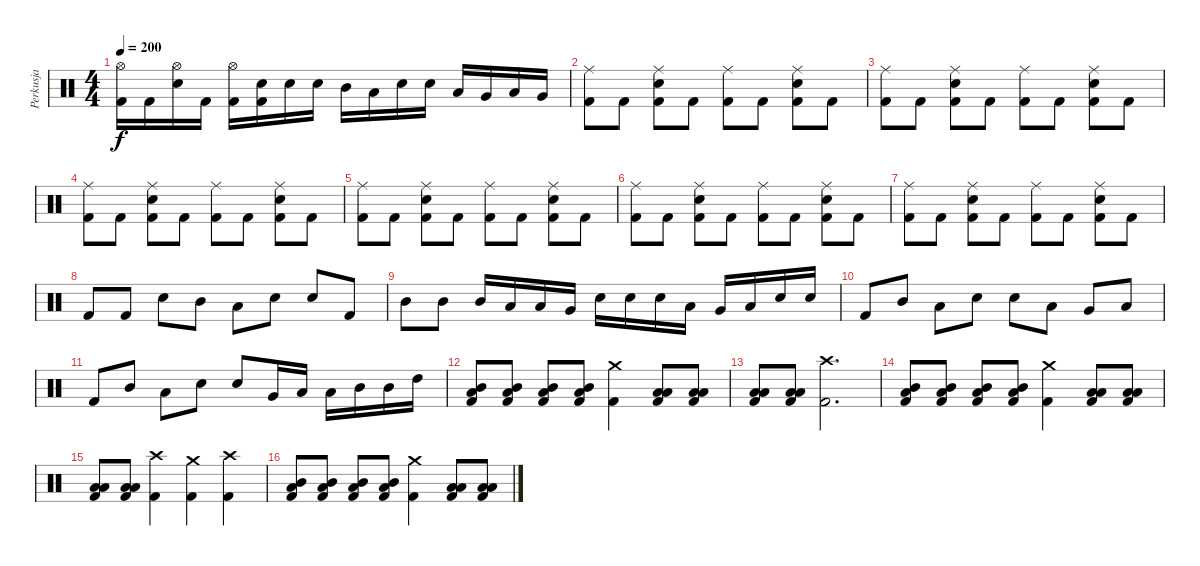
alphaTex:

\track ("Perkusja" "Perkusja") {instrument percussion}
\staff {score}
\articulation defaults
\ts (4 4)
\tempo 200
\clef neutral
\ks c
("Hi-Hat (open)" "Kick (hit) 2").16{dy f} "Kick (hit) 2".16 ("Hi-Hat (open)" "Snare (hit) 2").16 "Kick (hit) 2".16 ("Hi-Hat (open)" "Kick (hit) 2").16 ("Snare (hit) 2" "Kick (hit) 2").16 "Snare (hit) 2".16 "Snare (hit) 2".16 "Mid Tom (hit)".16 "Low Tom (hit)".16 "Snare (hit) 2".16 "Snare (hit) 2".16 "Low Tom (hit)".16 "Very Low Tom (hit)".16 "Low Floor Tom (hit)".16 "Very Low Tom (hit)".16 |
("Ride (middle)" "Kick (hit) 2").8 "Kick (hit) 2".8 ("Ride (middle)" "Snare (hit) 2" "Kick (hit) 2").8 "Kick (hit) 2".8 ("Ride (middle)" "Kick (hit) 2").8 "Kick (hit) 2".8 ("Ride (middle)" "Snare (hit) 2" "Kick (hit) 2").8 "Kick (hit) 2".8 |
("Ride (middle)" "Kick (hit) 2").8 "Kick (hit) 2".8 ("Ride (middle)" "Snare (hit) 2" "Kick (hit) 2").8 "Kick (hit) 2".8 ("Ride (middle)" "Kick (hit) 2").8 "Kick (hit) 2".8 ("Ride (middle)" "Snare (hit) 2" "Kick (hit) 2").8 "Kick (hit) 2".8 |
("Ride (middle)" "Kick (hit) 2").8 "Kick (hit) 2".8 ("Ride (middle)" "Snare (hit) 2" "Kick (hit) 2").8 "Kick (hit) 2".8 ("Ride (middle)" "Kick (hit) 2").8 "Kick (hit) 2".8 ("Ride (middle)" "Snare (hit) 2" "Kick (hit) 2").8 "Kick (hit) 2".8 |
("Ride (middle)" "Kick (hit) 2").8 "Kick (hit) 2".8 ("Ride (middle)" "Snare (hit) 2" "Kick (hit) 2").8 "Kick (hit) 2".8 ("Ride (middle)" "Kick (hit) 2").8 "Kick (hit) 2".8 ("Ride (middle)" "Snare (hit) 2" "Kick (hit) 2").8 "Kick (hit) 2".8 |
("Ride (middle)" "Kick (hit) 2").8 "Kick (hit) 2".8 ("Ride (middle)" "Snare (hit) 2" "Kick (hit) 2").8 "Kick (hit) 2".8 ("Ride (middle)" "Kick (hit) 2").8 "Kick (hit) 2".8 ("Ride (middle)" "Snare (hit) 2" "Kick (hit) 2").8 "Kick (hit) 2".8 |
("Ride (middle)" "Kick (hit) 2").8 "Kick (hit) 2".8 ("Ride (middle)" "Snare (hit) 2" "Kick (hit) 2").8 "Kick (hit) 2".8 ("Ride (middle)" "Kick (hit) 2").8 "Kick (hit) 2".8 ("Ride (middle)" "Snare (hit) 2" "Kick (hit) 2").8 "Kick (hit) 2".8 |
"Kick (hit) 2".8 "Kick (hit) 2".8 "Snare (hit) 2".8 "Mid Tom (hit)".8 "Low Tom (hit)".8 "Snare (hit) 2".8 "Snare (hit) 2".8 "Kick (hit) 2".8 |
"Mid Tom (hit)".8 "Mid Tom (hit)".8 "Mid Tom (hit)".16 "Low Tom (hit)".16 "Low Tom (hit)".16 "Very Low Tom (hit)".16 "Snare (hit) 2".16 "Snare (hit) 2".16 "Snare (hit) 2".16 "Low Tom (hit)".16 "Very Low Tom (hit)".16 "Low Floor Tom (hit)".16 "Snare (hit) 2".16 "Snare (hit) 2".16 |
"Kick (hit) 2".8 "Mid Tom (hit)".8 "Low Tom (hit)".8 "Snare (hit) 2".8 "Snare (hit) 2".8 "Low Tom (hit)".8 "Very Low Tom (hit)".8 "Low Floor Tom (hit)".8 |
"Kick (hit) 2".8 "Mid Tom (hit)".8 "Low Tom (hit)".8 "Snare (hit) 2".8 "Snare (hit) 2".8 "Very Low Tom (hit)".16 "Low Tom (hit)".16 "Low Tom (hit)".16 "Mid Tom (hit)".16 "Mid Tom (hit)".16 "High Tom (hit)".16 |
("Mid Tom (hit)" "Low Tom (hit)" "Kick (hit) 2").8 ("Mid Tom (hit)" "Low Tom (hit)" "Kick (hit) 2").8 ("Mid Tom (hit)" "Low Tom (hit)" "Kick (hit) 2").8 ("Mid Tom (hit)" "Low Tom (hit)" "Kick (hit) 2").8 ("Crash medium (hit)" "Kick (hit) 2").4 ("Low Floor Tom (hit)" "Low Tom (hit)" "Kick (hit) 2").8 ("Low Floor Tom (hit)" "Low Tom (hit)" "Kick (hit) 2").8 |
("Low Floor Tom (hit)" "Low Tom (hit)" "Kick (hit) 2").8 ("Low Floor Tom (hit)" "Low Tom (hit)" "Kick (hit) 2").8 ("Crash high (hit)" "Kick (hit) 2").2{d} |
("Mid Tom (hit)" "Low Tom (hit)" "Kick (hit) 2").8 ("Mid Tom (hit)" "Low Tom (hit)" "Kick (hit) 2").8 ("Mid Tom (hit)" "Low Tom (hit)" "Kick (hit) 2").8 ("Mid Tom (hit)" "Low Tom (hit)" "Kick (hit) 2").8 ("Crash medium (hit)" "Kick (hit) 2").4 ("Low Floor Tom (hit)" "Low Tom (hit)" "Kick (hit) 2").8 ("Low Floor Tom (hit)" "Low Tom (hit)" "Kick (hit) 2").8 |
("Low Floor Tom (hit)" "Low Tom (hit)" "Kick (hit) 2").8 ("Low Floor Tom (hit)" "Low Tom (hit)" "Kick (hit) 2").8 ("Crash high (hit)" "Kick (hit) 2").4 ("Crash medium (hit)" "Kick (hit) 2").4 ("Crash high (hit)" "Kick (hit) 2").4 |
("Mid Tom (hit)" "Low Tom (hit)" "Kick (hit) 2").8 ("Mid Tom (hit)" "Low Tom (hit)" "Kick (hit) 2").8 ("Mid Tom (hit)" "Low Tom (hit)" "Kick (hit) 2").8 ("Mid Tom (hit)" "Low Tom (hit)" "Kick (hit) 2").8 ("Crash medium (hit)" "Kick (hit) 2").4 ("Low Floor Tom (hit)" "Low Tom (hit)" "Kick (hit) 2").8 ("Low Floor Tom (hit)" "Low Tom (hit)" "Kick (hit) 2").8
